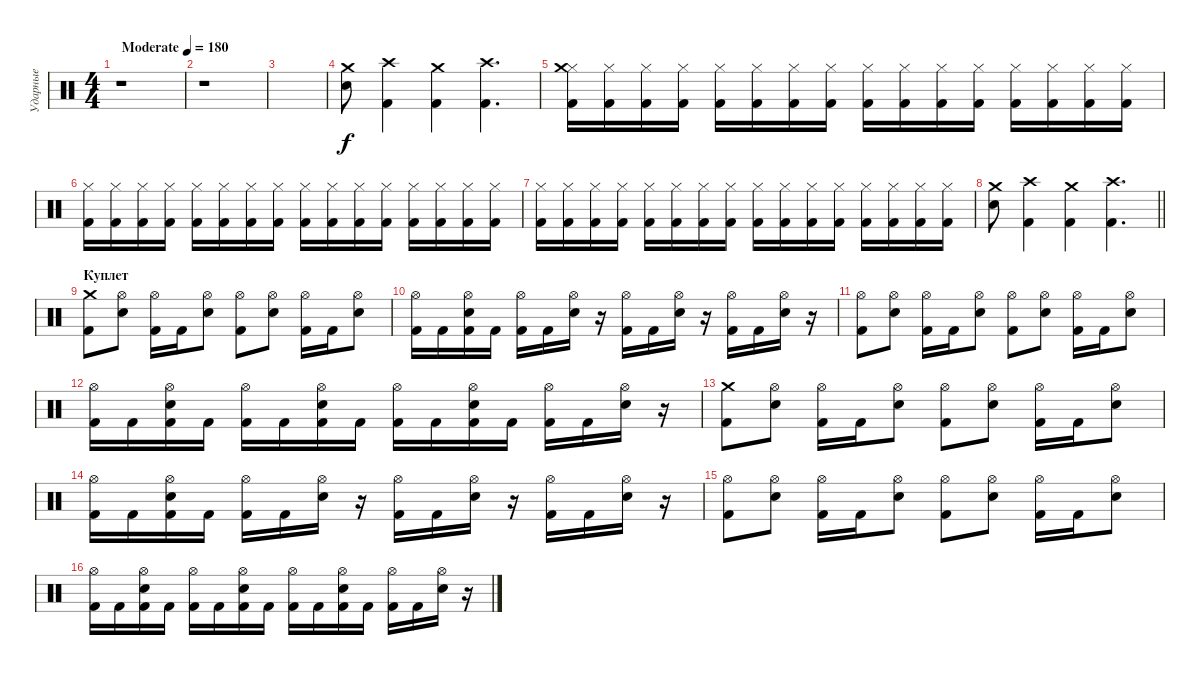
\track ("Ударные" "Ударные") {instrument percussion}
\staff {score}
\articulation defaults
\ts (4 4)
\tempo (180 "Moderate")
\clef neutral
\ks c
r.1{dy f} |
r.1 |
|
("Electric Snare (hit)" "Crash medium (hit)").8 ("Kick (hit) 2" "Crash high (hit)").4 ("Kick (hit) 2" "Crash medium (hit)").4 ("Kick (hit) 2" "Crash high (hit)").4{d} |
("Kick (hit) 2" "Hi-Hat (closed)" "Crash medium (hit)").16 ("Kick (hit) 2" "Hi-Hat (closed)").16 ("Kick (hit) 2" "Hi-Hat (closed)").16 ("Kick (hit) 2" "Hi-Hat (closed)").16 ("Kick (hit) 2" "Hi-Hat (closed)").16 ("Kick (hit) 2" "Hi-Hat (closed)").16 ("Kick (hit) 2" "Hi-Hat (closed)").16 ("Kick (hit) 2" "Hi-Hat (closed)").16 ("Kick (hit) 2" "Hi-Hat (closed)").16 ("Kick (hit) 2" "Hi-Hat (closed)").16 ("Kick (hit) 2" "Hi-Hat (closed)").16 ("Kick (hit) 2" "Hi-Hat (closed)").16 ("Kick (hit) 2" "Hi-Hat (closed)").16 ("Kick (hit) 2" "Hi-Hat (closed)").16 ("Kick (hit) 2" "Hi-Hat (closed)").16 ("Kick (hit) 2" "Hi-Hat (closed)").16 |
("Kick (hit) 2" "Hi-Hat (closed)").16 ("Kick (hit) 2" "Hi-Hat (closed)").16 ("Kick (hit) 2" "Hi-Hat (closed)").16 ("Kick (hit) 2" "Hi-Hat (closed)").16 ("Kick (hit) 2" "Hi-Hat (closed)").16 ("Kick (hit) 2" "Hi-Hat (closed)").16 ("Kick (hit) 2" "Hi-Hat (closed)").16 ("Kick (hit) 2" "Hi-Hat (closed)").16 ("Kick (hit) 2" "Hi-Hat (closed)").16 ("Kick (hit) 2" "Hi-Hat (closed)").16 ("Kick (hit) 2" "Hi-Hat (closed)").16 ("Kick (hit) 2" "Hi-Hat (closed)").16 ("Kick (hit) 2" "Hi-Hat (closed)").16 ("Kick (hit) 2" "Hi-Hat (closed)").16 ("Kick (hit) 2" "Hi-Hat (closed)").16 ("Kick (hit) 2" "Hi-Hat (closed)").16 |
("Kick (hit) 2" "Hi-Hat (closed)").16 ("Kick (hit) 2" "Hi-Hat (closed)").16 ("Kick (hit) 2" "Hi-Hat (closed)").16 ("Kick (hit) 2" "Hi-Hat (closed)").16 ("Kick (hit) 2" "Hi-Hat (closed)").16 ("Kick (hit) 2" "Hi-Hat (closed)").16 ("Kick (hit) 2" "Hi-Hat (closed)").16 ("Kick (hit) 2" "Hi-Hat (closed)").16 ("Kick (hit) 2" "Hi-Hat (closed)").16 ("Kick (hit) 2" "Hi-Hat (closed)").16 ("Kick (hit) 2" "Hi-Hat (closed)").16 ("Kick (hit) 2" "Hi-Hat (closed)").16 ("Kick (hit) 2" "Hi-Hat (closed)").16 ("Kick (hit) 2" "Hi-Hat (closed)").16 ("Kick (hit) 2" "Hi-Hat (closed)").16 ("Kick (hit) 2" "Hi-Hat (closed)").16 |
\barLineRight lightlight
("Electric Snare (hit)" "Crash medium (hit)").8 ("Kick (hit) 2" "Crash high (hit)").4 ("Kick (hit) 2" "Crash medium (hit)").4 ("Kick (hit) 2" "Crash high (hit)").4{d} |
\section ("" "Куплет")
("Crash medium (hit)" "Kick (hit) 2").8 ("Hi-Hat (open)" "Electric Snare (hit)").8 ("Hi-Hat (open)" "Kick (hit) 2").16 "Kick (hit) 2".16 ("Hi-Hat (open)" "Electric Snare (hit)").8 ("Hi-Hat (open)" "Kick (hit) 2").8 ("Hi-Hat (open)" "Electric Snare (hit)").8 ("Hi-Hat (open)" "Kick (hit) 2").16 "Kick (hit) 2".16 ("Hi-Hat (open)" "Electric Snare (hit)").8 |
("Hi-Hat (open)" "Kick (hit) 2").16 "Kick (hit) 2".16 ("Hi-Hat (open)" "Electric Snare (hit)" "Kick (hit) 2").16 "Kick (hit) 2".16 ("Hi-Hat (open)" "Kick (hit) 2").16 "Kick (hit) 2".16 ("Hi-Hat (open)" "Electric Snare (hit)").16 r.16 ("Hi-Hat (open)" "Kick (hit) 2").16 "Kick (hit) 2".16 ("Hi-Hat (open)" "Electric Snare (hit)").16 r.16 ("Hi-Hat (open)" "Kick (hit) 2").16 "Kick (hit) 2".16 ("Hi-Hat (open)" "Electric Snare (hit)").16 r.16 |
("Hi-Hat (open)" "Kick (hit) 2").8 ("Hi-Hat (open)" "Electric Snare (hit)").8 ("Hi-Hat (open)" "Kick (hit) 2").16 "Kick (hit) 2".16 ("Hi-Hat (open)" "Electric Snare (hit)").8 ("Hi-Hat (open)" "Kick (hit) 2").8 ("Hi-Hat (open)" "Electric Snare (hit)").8 ("Hi-Hat (open)" "Kick (hit) 2").16 "Kick (hit) 2".16 ("Hi-Hat (open)" "Electric Snare (hit)").8 |
("Hi-Hat (open)" "Kick (hit) 2").16 "Kick (hit) 2".16 ("Hi-Hat (open)" "Electric Snare (hit)" "Kick (hit) 2").16 "Kick (hit) 2".16 ("Hi-Hat (open)" "Kick (hit) 2").16 "Kick (hit) 2".16 ("Hi-Hat (open)" "Electric Snare (hit)" "Kick (hit) 2").16 "Kick (hit) 2".16 ("Hi-Hat (open)" "Kick (hit) 2").16 "Kick (hit) 2".16 ("Hi-Hat (open)" "Electric Snare (hit)" "Kick (hit) 2").16 "Kick (hit) 2".16 ("Hi-Hat (open)" "Kick (hit) 2").16 "Kick (hit) 2".16 ("Hi-Hat (open)" "Electric Snare (hit)").16 r.16 |
("Crash medium (hit)" "Kick (hit) 2").8 ("Hi-Hat (open)" "Electric Snare (hit)").8 ("Hi-Hat (open)" "Kick (hit) 2").16 "Kick (hit) 2".16 ("Hi-Hat (open)" "Electric Snare (hit)").8 ("Hi-Hat (open)" "Kick (hit) 2").8 ("Hi-Hat (open)" "Electric Snare (hit)").8 ("Hi-Hat (open)" "Kick (hit) 2").16 "Kick (hit) 2".16 ("Hi-Hat (open)" "Electric Snare (hit)").8 |
("Hi-Hat (open)" "Kick (hit) 2").16 "Kick (hit) 2".16 ("Hi-Hat (open)" "Electric Snare (hit)" "Kick (hit) 2").16 "Kick (hit) 2".16 ("Hi-Hat (open)" "Kick (hit) 2").16 "Kick (hit) 2".16 ("Hi-Hat (open)" "Electric Snare (hit)").16 r.16 ("Hi-Hat (open)" "Kick (hit) 2").16 "Kick (hit) 2".16 ("Hi-Hat (open)" "Electric Snare (hit)").16 r.16 ("Hi-Hat (open)" "Kick (hit) 2").16 "Kick (hit) 2".16 ("Hi-Hat (open)" "Electric Snare (hit)").16 r.16 |
("Hi-Hat (open)" "Kick (hit) 2").8 ("Hi-Hat (open)" "Electric Snare (hit)").8 ("Hi-Hat (open)" "Kick (hit) 2").16 "Kick (hit) 2".16 ("Hi-Hat (open)" "Electric Snare (hit)").8 ("Hi-Hat (open)" "Kick (hit) 2").8 ("Hi-Hat (open)" "Electric Snare (hit)").8 ("Hi-Hat (open)" "Kick (hit) 2").16 "Kick (hit) 2".16 ("Hi-Hat (open)" "Electric Snare (hit)").8 |
("Hi-Hat (open)" "Kick (hit) 2").16 "Kick (hit) 2".16 ("Hi-Hat (open)" "Electric Snare (hit)" "Kick (hit) 2").16 "Kick (hit) 2".16 ("Hi-Hat (open)" "Kick (hit) 2").16 "Kick (hit) 2".16 ("Hi-Hat (open)" "Electric Snare (hit)" "Kick (hit) 2").16 "Kick (hit) 2".16 ("Hi-Hat (open)" "Kick (hit) 2").16 "Kick (hit) 2".16 ("Hi-Hat (open)" "Electric Snare (hit)" "Kick (hit) 2").16 "Kick (hit) 2".16 ("Hi-Hat (open)" "Kick (hit) 2").16 "Kick (hit) 2".16 ("Hi-Hat (open)" "Electric Snare (hit)").16 r.16
